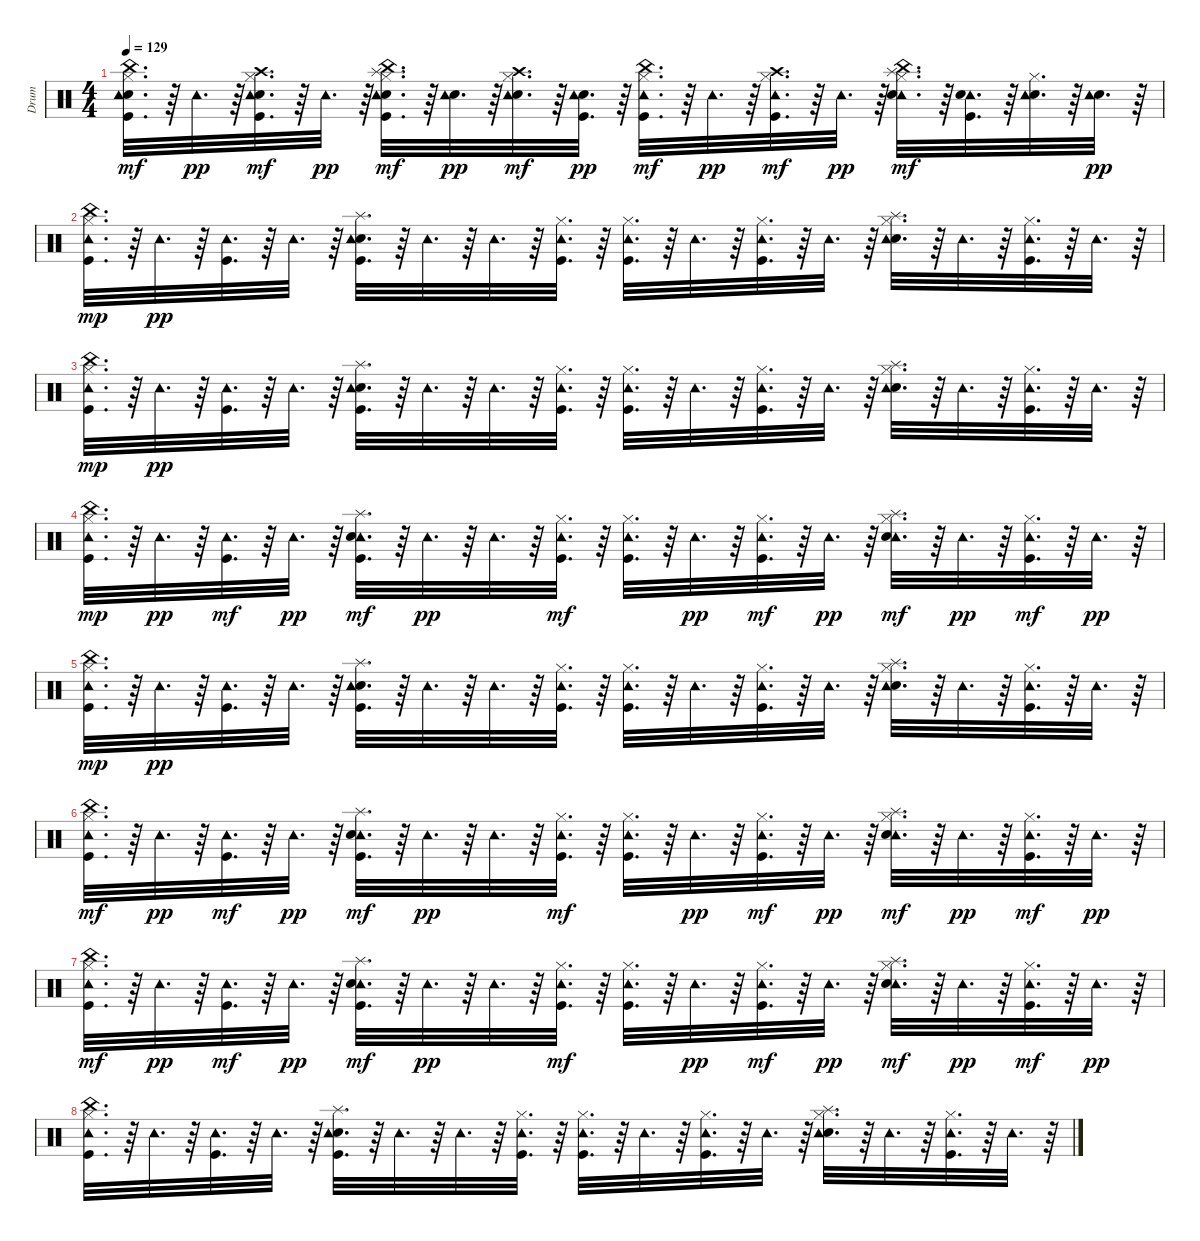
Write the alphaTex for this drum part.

\track ("Drum" "Drum") {instrument percussion}
\staff {score}
\articulation defaults
\ts (4 4)
\tempo 129
\clef neutral
\ks c
("China (hit)" "Snare (hit) 2" "Tambourine (hit)" "Kick (hit)" "Hi-Hat (closed)").32{d dy mf} r.64 "Tambourine (hit)".32{d dy pp} r.64 ("Crash high (hit)" "Snare (hit) 2" "Kick (hit)" "Tambourine (hit)" "Hi-Hat (closed)").32{d dy mf} r.64 "Tambourine (hit)".32{d dy pp} r.64 ("China (hit)" "Snare (hit) 2" "Splash (hit)" "Kick (hit)" "Tambourine (hit)" "Hi-Hat (closed)").32{d dy mf} r.64 ("Snare (hit) 2" "Tambourine (hit)").32{d dy pp} r.64 ("Crash high (hit)" "Snare (hit) 2" "Tambourine (hit)" "Hi-Hat (closed)").32{d dy mf} r.64 ("Snare (hit) 2" "Kick (hit)" "Tambourine (hit)").32{d dy pp} r.64 ("China (hit)" "Tambourine (hit)" "Hi-Hat (closed)" "Kick (hit)").32{d dy mf} r.64 "Tambourine (hit)".32{d dy pp} r.64 ("Crash high (hit)" "Tambourine (hit)" "Hi-Hat (closed)" "Kick (hit)").32{d dy mf} r.64 "Tambourine (hit)".32{d dy pp} r.64 ("China (hit)" "Tambourine (hit)" "Hi-Hat (closed)" "Snare (hit) 2" "Splash (hit)").32{d dy mf} r.64 ("Tambourine (hit)" "Snare (hit) 2" "Kick (hit)").32{d} r.64 ("Snare (hit) 2" "Tambourine (hit)" "Hi-Hat (closed)").32{d} r.64 ("Snare (hit) 2" "Tambourine (hit)").32{d dy pp} r.64 |
("Kick (hit)" "Hi-Hat (closed)" "Tambourine (hit)" "China (hit)").32{d dy mp} r.64 "Tambourine (hit)".32{d dy pp} r.64 ("Kick (hit)" "Tambourine (hit)").32{d} r.64 "Tambourine (hit)".32{d} r.64 ("Splash (hit)" "Snare (hit) 2" "Kick (hit)" "Tambourine (hit)").32{d} r.64 "Tambourine (hit)".32{d} r.64 "Tambourine (hit)".32{d} r.64 ("Kick (hit)" "Hi-Hat (closed)" "Tambourine (hit)").32{d} r.64 ("Kick (hit)" "Hi-Hat (closed)" "Tambourine (hit)").32{d} r.64 "Tambourine (hit)".32{d} r.64 ("Kick (hit)" "Hi-Hat (closed)" "Tambourine (hit)").32{d} r.64 "Tambourine (hit)".32{d} r.64 ("Splash (hit)" "Snare (hit) 2" "Hi-Hat (closed)" "Tambourine (hit)").32{d} r.64 "Tambourine (hit)".32{d} r.64 ("Kick (hit)" "Hi-Hat (closed)" "Tambourine (hit)").32{d} r.64 "Tambourine (hit)".32{d} r.64 |
("Kick (hit)" "Hi-Hat (closed)" "Tambourine (hit)" "China (hit)").32{d dy mp} r.64 "Tambourine (hit)".32{d dy pp} r.64 ("Kick (hit)" "Tambourine (hit)").32{d} r.64 "Tambourine (hit)".32{d} r.64 ("Splash (hit)" "Snare (hit) 2" "Kick (hit)" "Tambourine (hit)").32{d} r.64 "Tambourine (hit)".32{d} r.64 "Tambourine (hit)".32{d} r.64 ("Kick (hit)" "Hi-Hat (closed)" "Tambourine (hit)").32{d} r.64 ("Kick (hit)" "Hi-Hat (closed)" "Tambourine (hit)").32{d} r.64 "Tambourine (hit)".32{d} r.64 ("Kick (hit)" "Hi-Hat (closed)" "Tambourine (hit)").32{d} r.64 "Tambourine (hit)".32{d} r.64 ("Splash (hit)" "Snare (hit) 2" "Hi-Hat (closed)" "Tambourine (hit)").32{d} r.64 "Tambourine (hit)".32{d} r.64 ("Kick (hit)" "Hi-Hat (closed)" "Tambourine (hit)").32{d} r.64 "Tambourine (hit)".32{d} r.64 |
("Tambourine (hit)" "Hi-Hat (closed)" "Kick (hit)" "China (hit)").32{d dy mp} r.64 "Tambourine (hit)".32{d dy pp} r.64 ("Tambourine (hit)" "Kick (hit)").32{d dy mf} r.64 "Tambourine (hit)".32{d dy pp} r.64 ("Tambourine (hit)" "Kick (hit)" "Snare (hit) 2" "Splash (hit)").32{d dy mf} r.64 "Tambourine (hit)".32{d dy pp} r.64 "Tambourine (hit)".32{d} r.64 ("Tambourine (hit)" "Hi-Hat (closed)" "Kick (hit)").32{d dy mf} r.64 ("Tambourine (hit)" "Hi-Hat (closed)" "Kick (hit)").32{d} r.64 "Tambourine (hit)".32{d dy pp} r.64 ("Tambourine (hit)" "Hi-Hat (closed)" "Kick (hit)").32{d dy mf} r.64 "Tambourine (hit)".32{d dy pp} r.64 ("Tambourine (hit)" "Hi-Hat (closed)" "Snare (hit) 2" "Splash (hit)").32{d dy mf} r.64 "Tambourine (hit)".32{d dy pp} r.64 ("Tambourine (hit)" "Hi-Hat (closed)" "Kick (hit)").32{d dy mf} r.64 "Tambourine (hit)".32{d dy pp} r.64 |
("Kick (hit)" "Hi-Hat (closed)" "Tambourine (hit)" "China (hit)").32{d dy mp} r.64 "Tambourine (hit)".32{d dy pp} r.64 ("Kick (hit)" "Tambourine (hit)").32{d} r.64 "Tambourine (hit)".32{d} r.64 ("Splash (hit)" "Snare (hit) 2" "Kick (hit)" "Tambourine (hit)").32{d} r.64 "Tambourine (hit)".32{d} r.64 "Tambourine (hit)".32{d} r.64 ("Kick (hit)" "Hi-Hat (closed)" "Tambourine (hit)").32{d} r.64 ("Kick (hit)" "Hi-Hat (closed)" "Tambourine (hit)").32{d} r.64 "Tambourine (hit)".32{d} r.64 ("Kick (hit)" "Hi-Hat (closed)" "Tambourine (hit)").32{d} r.64 "Tambourine (hit)".32{d} r.64 ("Splash (hit)" "Snare (hit) 2" "Hi-Hat (closed)" "Tambourine (hit)").32{d} r.64 "Tambourine (hit)".32{d} r.64 ("Kick (hit)" "Hi-Hat (closed)" "Tambourine (hit)").32{d} r.64 "Tambourine (hit)".32{d} r.64 |
("China (hit)" "Tambourine (hit)" "Hi-Hat (closed)" "Kick (hit)").32{d dy mf} r.64 "Tambourine (hit)".32{d dy pp} r.64 ("Tambourine (hit)" "Kick (hit)").32{d dy mf} r.64 "Tambourine (hit)".32{d dy pp} r.64 ("Tambourine (hit)" "Kick (hit)" "Snare (hit) 2" "Splash (hit)").32{d dy mf} r.64 "Tambourine (hit)".32{d dy pp} r.64 "Tambourine (hit)".32{d} r.64 ("Tambourine (hit)" "Hi-Hat (closed)" "Kick (hit)").32{d dy mf} r.64 ("Tambourine (hit)" "Hi-Hat (closed)" "Kick (hit)").32{d} r.64 "Tambourine (hit)".32{d dy pp} r.64 ("Tambourine (hit)" "Hi-Hat (closed)" "Kick (hit)").32{d dy mf} r.64 "Tambourine (hit)".32{d dy pp} r.64 ("Tambourine (hit)" "Hi-Hat (closed)" "Snare (hit) 2" "Splash (hit)").32{d dy mf} r.64 "Tambourine (hit)".32{d dy pp} r.64 ("Tambourine (hit)" "Hi-Hat (closed)" "Kick (hit)").32{d dy mf} r.64 "Tambourine (hit)".32{d dy pp} r.64 |
("China (hit)" "Tambourine (hit)" "Hi-Hat (closed)" "Kick (hit)").32{d dy mf} r.64 "Tambourine (hit)".32{d dy pp} r.64 ("Tambourine (hit)" "Kick (hit)").32{d dy mf} r.64 "Tambourine (hit)".32{d dy pp} r.64 ("Tambourine (hit)" "Kick (hit)" "Snare (hit) 2" "Splash (hit)").32{d dy mf} r.64 "Tambourine (hit)".32{d dy pp} r.64 "Tambourine (hit)".32{d} r.64 ("Tambourine (hit)" "Hi-Hat (closed)" "Kick (hit)").32{d dy mf} r.64 ("Tambourine (hit)" "Hi-Hat (closed)" "Kick (hit)").32{d} r.64 "Tambourine (hit)".32{d dy pp} r.64 ("Tambourine (hit)" "Hi-Hat (closed)" "Kick (hit)").32{d dy mf} r.64 "Tambourine (hit)".32{d dy pp} r.64 ("Tambourine (hit)" "Hi-Hat (closed)" "Snare (hit) 2" "Splash (hit)").32{d dy mf} r.64 "Tambourine (hit)".32{d dy pp} r.64 ("Tambourine (hit)" "Hi-Hat (closed)" "Kick (hit)").32{d dy mf} r.64 "Tambourine (hit)".32{d dy pp} r.64 |
("China (hit)" "Kick (hit)" "Hi-Hat (closed)" "Tambourine (hit)").32{d} r.64 "Tambourine (hit)".32{d} r.64 ("Kick (hit)" "Tambourine (hit)").32{d} r.64 "Tambourine (hit)".32{d} r.64 ("Splash (hit)" "Snare (hit) 2" "Kick (hit)" "Tambourine (hit)").32{d} r.64 "Tambourine (hit)".32{d} r.64 "Tambourine (hit)".32{d} r.64 ("Kick (hit)" "Hi-Hat (closed)" "Tambourine (hit)").32{d} r.64 ("Kick (hit)" "Hi-Hat (closed)" "Tambourine (hit)").32{d} r.64 "Tambourine (hit)".32{d} r.64 ("Kick (hit)" "Hi-Hat (closed)" "Tambourine (hit)").32{d} r.64 "Tambourine (hit)".32{d} r.64 ("Splash (hit)" "Snare (hit) 2" "Hi-Hat (closed)" "Tambourine (hit)").32{d} r.64 "Tambourine (hit)".32{d} r.64 ("Kick (hit)" "Hi-Hat (closed)" "Tambourine (hit)").32{d} r.64 "Tambourine (hit)".32{d} r.64
